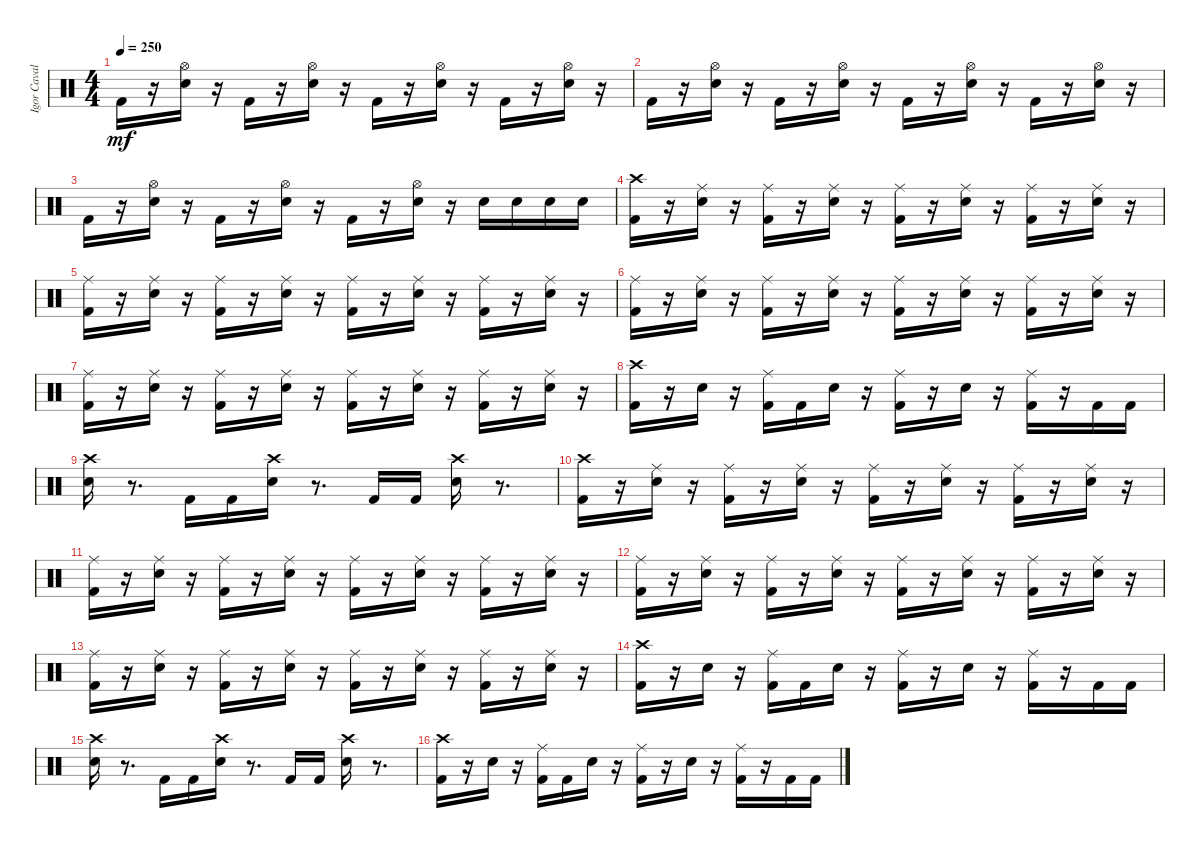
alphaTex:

\track ("Igor Cavalera" "Igor Caval") {instrument percussion}
\staff {score}
\articulation defaults
\ts (4 4)
\tempo 250
\clef neutral
\ks c "Kick (hit) 2".16{dy mf}
r.16 ("Snare (hit) 2" "Hi-Hat (open)").16 r.16 "Kick (hit) 2".16 r.16 ("Snare (hit) 2" "Hi-Hat (open)").16 r.16 "Kick (hit) 2".16 r.16 ("Snare (hit) 2" "Hi-Hat (open)").16 r.16 "Kick (hit) 2".16 r.16 ("Snare (hit) 2" "Hi-Hat (open)").16 r.16 |
"Kick (hit) 2".16 r.16 ("Snare (hit) 2" "Hi-Hat (open)").16 r.16 "Kick (hit) 2".16 r.16 ("Snare (hit) 2" "Hi-Hat (open)").16 r.16 "Kick (hit) 2".16 r.16 ("Snare (hit) 2" "Hi-Hat (open)").16 r.16 "Kick (hit) 2".16 r.16 ("Snare (hit) 2" "Hi-Hat (open)").16 r.16 |
"Kick (hit) 2".16 r.16 ("Snare (hit) 2" "Hi-Hat (open)").16 r.16 "Kick (hit) 2".16 r.16 ("Snare (hit) 2" "Hi-Hat (open)").16 r.16 "Kick (hit) 2".16 r.16 ("Snare (hit) 2" "Hi-Hat (open)").16 r.16 "Snare (hit) 2".16 "Snare (hit) 2".16 "Snare (hit) 2".16 "Snare (hit) 2".16 |
("Kick (hit) 2" "Crash high (hit)").16 r.16 ("Snare (hit) 2" "Ride (middle)").16 r.16 ("Kick (hit) 2" "Ride (middle)").16 r.16 ("Snare (hit) 2" "Ride (middle)").16 r.16 ("Kick (hit) 2" "Ride (middle)").16 r.16 ("Snare (hit) 2" "Ride (middle)").16 r.16 ("Kick (hit) 2" "Ride (middle)").16 r.16 ("Ride (middle)" "Snare (hit) 2").16 r.16 |
("Kick (hit) 2" "Ride (middle)").16 r.16 ("Snare (hit) 2" "Ride (middle)").16 r.16 ("Kick (hit) 2" "Ride (middle)").16 r.16 ("Snare (hit) 2" "Ride (middle)").16 r.16 ("Kick (hit) 2" "Ride (middle)").16 r.16 ("Snare (hit) 2" "Ride (middle)").16 r.16 ("Kick (hit) 2" "Ride (middle)").16 r.16 ("Snare (hit) 2" "Ride (middle)").16 r.16 |
("Kick (hit) 2" "Ride (middle)").16 r.16 ("Snare (hit) 2" "Ride (middle)").16 r.16 ("Kick (hit) 2" "Ride (middle)").16 r.16 ("Snare (hit) 2" "Ride (middle)").16 r.16 ("Kick (hit) 2" "Ride (middle)").16 r.16 ("Snare (hit) 2" "Ride (middle)").16 r.16 ("Kick (hit) 2" "Ride (middle)").16 r.16 ("Snare (hit) 2" "Ride (middle)").16 r.16 |
("Kick (hit) 2" "Ride (middle)").16 r.16 ("Snare (hit) 2" "Ride (middle)").16 r.16 ("Kick (hit) 2" "Ride (middle)").16 r.16 ("Snare (hit) 2" "Ride (middle)").16 r.16 ("Kick (hit) 2" "Ride (middle)").16 r.16 ("Snare (hit) 2" "Ride (middle)").16 r.16 ("Kick (hit) 2" "Ride (middle)").16 r.16 ("Snare (hit) 2" "Ride (middle)").16 r.16 |
("Crash high (hit)" "Kick (hit) 2").16 r.16 "Snare (hit) 2".16 r.16 ("Kick (hit) 2" "Ride (middle)").16 "Kick (hit) 2".16 "Snare (hit) 2".16 r.16 ("Kick (hit) 2" "Ride (middle)").16 r.16 "Snare (hit) 2".16 r.16 ("Kick (hit) 2" "Ride (middle)").16 r.16 "Kick (hit) 2".16 "Kick (hit) 2".16 |
("Crash high (hit)" "Snare (hit) 2").16 r.8{d} "Kick (hit) 2".16 "Kick (hit) 2".16 ("Snare (hit) 2" "Crash high (hit)").16 r.8{d} "Kick (hit) 2".16 "Kick (hit) 2".16 ("Snare (hit) 2" "Crash high (hit)").16 r.8{d} |
("Kick (hit) 2" "Crash high (hit)").16 r.16 ("Snare (hit) 2" "Ride (middle)").16 r.16 ("Kick (hit) 2" "Ride (middle)").16 r.16 ("Snare (hit) 2" "Ride (middle)").16 r.16 ("Kick (hit) 2" "Ride (middle)").16 r.16 ("Snare (hit) 2" "Ride (middle)").16 r.16 ("Kick (hit) 2" "Ride (middle)").16 r.16 ("Snare (hit) 2" "Ride (middle)").16 r.16 |
("Kick (hit) 2" "Ride (middle)").16 r.16 ("Snare (hit) 2" "Ride (middle)").16 r.16 ("Kick (hit) 2" "Ride (middle)").16 r.16 ("Snare (hit) 2" "Ride (middle)").16 r.16 ("Kick (hit) 2" "Ride (middle)").16 r.16 ("Snare (hit) 2" "Ride (middle)").16 r.16 ("Kick (hit) 2" "Ride (middle)").16 r.16 ("Snare (hit) 2" "Ride (middle)").16 r.16 |
("Kick (hit) 2" "Ride (middle)").16 r.16 ("Snare (hit) 2" "Ride (middle)").16 r.16 ("Kick (hit) 2" "Ride (middle)").16 r.16 ("Snare (hit) 2" "Ride (middle)").16 r.16 ("Kick (hit) 2" "Ride (middle)").16 r.16 ("Snare (hit) 2" "Ride (middle)").16 r.16 ("Kick (hit) 2" "Ride (middle)").16 r.16 ("Snare (hit) 2" "Ride (middle)").16 r.16 |
("Kick (hit) 2" "Ride (middle)").16 r.16 ("Snare (hit) 2" "Ride (middle)").16 r.16 ("Kick (hit) 2" "Ride (middle)").16 r.16 ("Snare (hit) 2" "Ride (middle)").16 r.16 ("Kick (hit) 2" "Ride (middle)").16 r.16 ("Snare (hit) 2" "Ride (middle)").16 r.16 ("Kick (hit) 2" "Ride (middle)").16 r.16 ("Snare (hit) 2" "Ride (middle)").16 r.16 |
("Crash high (hit)" "Kick (hit) 2").16 r.16 "Snare (hit) 2".16 r.16 ("Kick (hit) 2" "Ride (middle)").16 "Kick (hit) 2".16 "Snare (hit) 2".16 r.16 ("Kick (hit) 2" "Ride (middle)").16 r.16 "Snare (hit) 2".16 r.16 ("Kick (hit) 2" "Ride (middle)").16 r.16 "Kick (hit) 2".16 "Kick (hit) 2".16 |
("Crash high (hit)" "Snare (hit) 2").16 r.8{d} "Kick (hit) 2".16 "Kick (hit) 2".16 ("Snare (hit) 2" "Crash high (hit)").16 r.8{d} "Kick (hit) 2".16 "Kick (hit) 2".16 ("Snare (hit) 2" "Crash high (hit)").16 r.8{d} |
("Crash high (hit)" "Kick (hit) 2").16 r.16 "Snare (hit) 2".16 r.16 ("Kick (hit) 2" "Ride (middle)").16 "Kick (hit) 2".16 "Snare (hit) 2".16 r.16 ("Kick (hit) 2" "Ride (middle)").16 r.16 "Snare (hit) 2".16 r.16 ("Kick (hit) 2" "Ride (middle)").16 r.16 "Kick (hit) 2".16 "Kick (hit) 2".16
